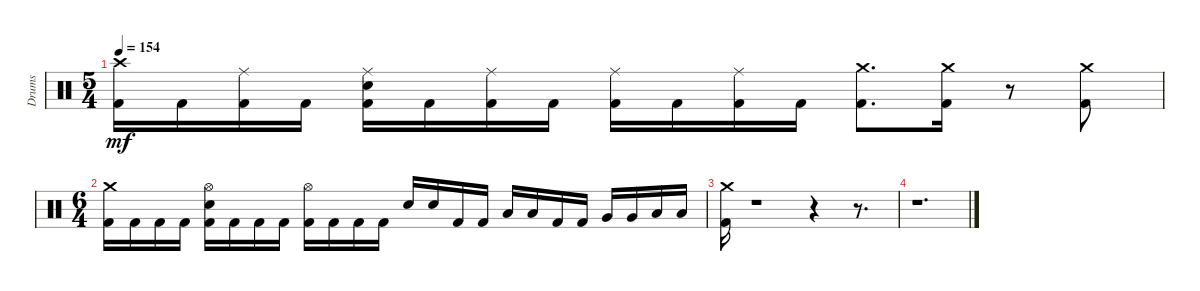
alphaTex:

\track ("Drums" "Drums") {instrument percussion}
\staff {score}
\articulation defaults
\ts (5 4)
\tempo 154
\clef neutral
\ks aminor
("Kick (hit) 2" "Crash high (hit)").16{dy mf} "Kick (hit) 2".16 ("Ride (middle)" "Kick (hit) 2").16 "Kick (hit) 2".16 ("Ride (middle)" "Kick (hit) 2" "Snare (hit) 2").16 "Kick (hit) 2".16 ("Kick (hit) 2" "Ride (middle)").16 "Kick (hit) 2".16 ("Kick (hit) 2" "Ride (middle)").16 "Kick (hit) 2".16 ("Kick (hit) 2" "Ride (middle)").16 "Kick (hit) 2".16 ("Crash medium (hit)" "Kick (hit) 2").8{d} ("Crash medium (hit)" "Kick (hit) 2").16 r.8 ("Crash medium (hit)" "Kick (hit) 2").8 |
\ts (6 4)
("Crash medium (hit)" "Kick (hit) 2").16 "Kick (hit) 2".16 "Kick (hit) 2".16 "Kick (hit) 2".16 ("Kick (hit) 2" "Hi-Hat (open)" "Snare (hit) 2").16 "Kick (hit) 2".16 "Kick (hit) 2".16 "Kick (hit) 2".16 ("Hi-Hat (open)" "Kick (hit) 2").16 "Kick (hit) 2".16 "Kick (hit) 2".16 "Kick (hit) 2".16 "Snare (hit) 2".16 "Snare (hit) 2".16 "Kick (hit) 2".16 "Kick (hit) 2".16 "Low Tom (hit)".16 "Low Tom (hit)".16 "Kick (hit) 2".16 "Kick (hit) 2".16 "Very Low Tom (hit)".16 "Very Low Tom (hit)".16 "Low Floor Tom (hit)".16 "Low Floor Tom (hit)".16 |
("Crash medium (hit)" "Kick (hit) 2").16 r.1 r.4 r.8{d} |
r.1{d}
